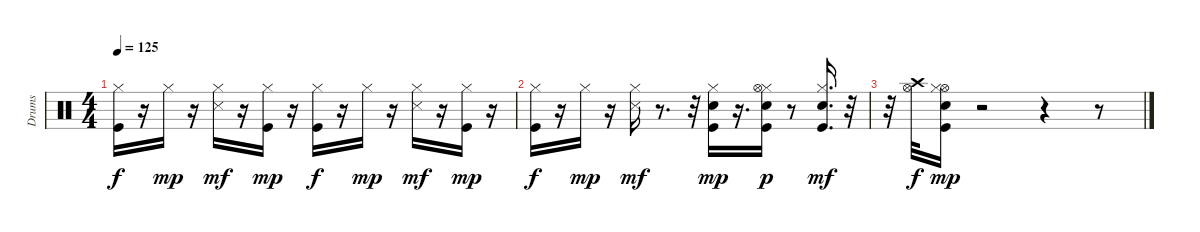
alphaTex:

\track ("Drums   " "Drums   ") {solo instrument percussion}
\staff {score}
\articulation defaults
\ts (4 4)
\tempo 125
\clef neutral
\ks c
("Kick (hit)" "Hi-Hat (closed)").16{dy f} r.16 "Hi-Hat (closed)".16{dy mp} r.16 ("Hi-Hat (closed)" "Snare (side stick) 3").16{dy mf} r.16 ("Kick (hit)" "Hi-Hat (closed)").16{dy mp} r.16 ("Kick (hit)" "Hi-Hat (closed)").16{dy f} r.16 "Hi-Hat (closed)".16{dy mp} r.16 ("Hi-Hat (closed)" "Snare (side stick) 3").16{dy mf} r.16 ("Kick (hit)" "Hi-Hat (closed)").16{dy mp} r.16 |
("Kick (hit)" "Hi-Hat (closed)").16{dy f} r.16 "Hi-Hat (closed)".16{dy mp} r.16 ("Snare (side stick) 3" "Hi-Hat (closed)").16{dy mf} r.8{d} r.32 ("Kick (hit)" "Hi-Hat (closed)" "Snare (hit) 2").16{dy mp} r.16{d} ("Kick (hit)" "Hi-Hat (closed)" "Snare (hit) 2" "Hi-Hat (open)").16{dy p} r.8 ("Snare (hit) 2" "Hi-Hat (closed)" "Kick (hit)").16{d dy mf} r.32 |
r.32 ("Crash high (hit)" "Hi-Hat (open)").32{dy f} ("Hi-Hat (open)" "Kick (hit)" "Hi-Hat (closed)" "Snare (hit) 2").16{dy mp} r.2 r.4 r.8
